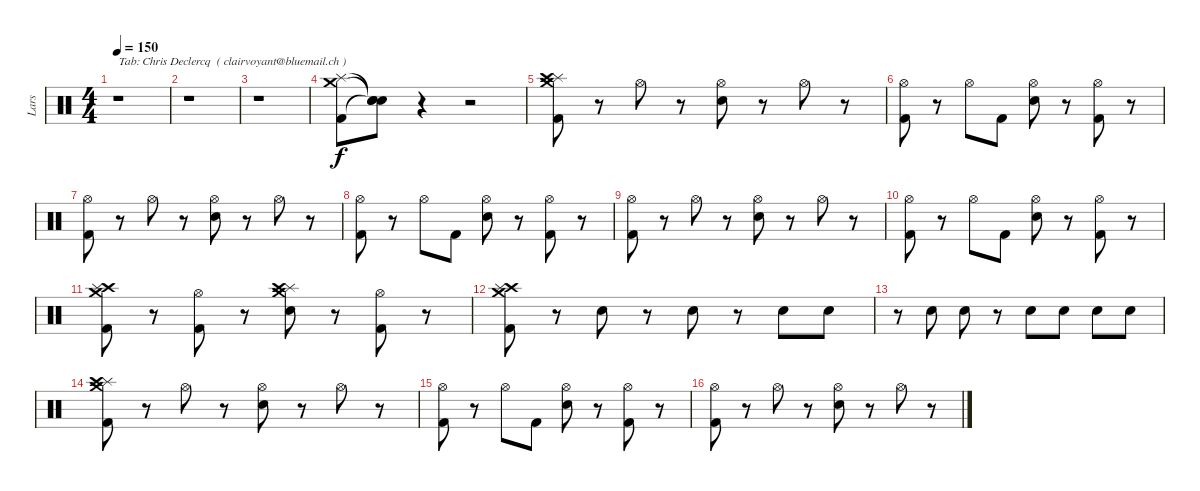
\track ("Lars" "Lars") {instrument percussion}
\staff {score}
\articulation defaults
\ts (4 4)
\tempo 150
\clef neutral
\ks c
r.1{txt "Tab: Chris Declercq  ( clairvoyant@bluemail.ch )" dy f} |
r.1 |
r.1 |
("Crash medium (hit)" "Splash (hit)" "Kick (hit) 2").8 ("Snare (hit)"{t} "Snare (hit)"{t} "Snare (hit)"{t}).8 r.4 r.2 |
("Splash (hit)" "Crash medium (hit)" "Crash high (hit)" "Kick (hit) 2").8 r.8 "Hi-Hat (open)".8 r.8 ("Hi-Hat (open)" "Snare (hit) 2").8 r.8 "Hi-Hat (open)".8 r.8 |
("Hi-Hat (open)" "Kick (hit) 2").8 r.8 "Hi-Hat (open)".8 "Kick (hit) 2".8 ("Hi-Hat (open)" "Snare (hit) 2").8 r.8 ("Hi-Hat (open)" "Kick (hit) 2").8 r.8 |
("Hi-Hat (open)" "Kick (hit) 2").8 r.8 "Hi-Hat (open)".8 r.8 ("Hi-Hat (open)" "Snare (hit) 2").8 r.8 "Hi-Hat (open)".8 r.8 |
("Hi-Hat (open)" "Kick (hit) 2").8 r.8 "Hi-Hat (open)".8 "Kick (hit) 2".8 ("Hi-Hat (open)" "Snare (hit) 2").8 r.8 ("Hi-Hat (open)" "Kick (hit) 2").8 r.8 |
("Hi-Hat (open)" "Kick (hit) 2").8 r.8 "Hi-Hat (open)".8 r.8 ("Hi-Hat (open)" "Snare (hit) 2").8 r.8 "Hi-Hat (open)".8 r.8 |
("Hi-Hat (open)" "Kick (hit) 2").8 r.8 "Hi-Hat (open)".8 "Kick (hit) 2".8 ("Hi-Hat (open)" "Snare (hit) 2").8 r.8 ("Hi-Hat (open)" "Kick (hit) 2").8 r.8 |
("Crash medium (hit)" "Crash high (hit)" "Splash (hit)" "Kick (hit) 2").8 r.8 ("Kick (hit) 2" "Hi-Hat (open)").8 r.8 ("Crash medium (hit)" "Splash (hit)" "Crash high (hit)" "Snare (hit) 2").8 r.8 ("Kick (hit) 2" "Hi-Hat (open)").8 r.8 |
("Kick (hit) 2" "Crash high (hit)" "Splash (hit)" "Crash medium (hit)").8 r.8 "Snare (hit) 2".8 r.8 "Snare (hit) 2".8 r.8 "Snare (hit) 2".8 "Snare (hit) 2".8 |
r.8 "Snare (hit) 2".8 "Snare (hit) 2".8 r.8 "Snare (hit) 2".8 "Snare (hit) 2".8 "Snare (hit) 2".8 "Snare (hit) 2".8 |
("Splash (hit)" "Crash medium (hit)" "Crash high (hit)" "Kick (hit) 2").8 r.8 "Hi-Hat (open)".8 r.8 ("Hi-Hat (open)" "Snare (hit) 2").8 r.8 "Hi-Hat (open)".8 r.8 |
("Hi-Hat (open)" "Kick (hit) 2").8 r.8 "Hi-Hat (open)".8 "Kick (hit) 2".8 ("Hi-Hat (open)" "Snare (hit) 2").8 r.8 ("Hi-Hat (open)" "Kick (hit) 2").8 r.8 |
("Hi-Hat (open)" "Kick (hit) 2").8 r.8 "Hi-Hat (open)".8 r.8 ("Hi-Hat (open)" "Snare (hit) 2").8 r.8 "Hi-Hat (open)".8 r.8
